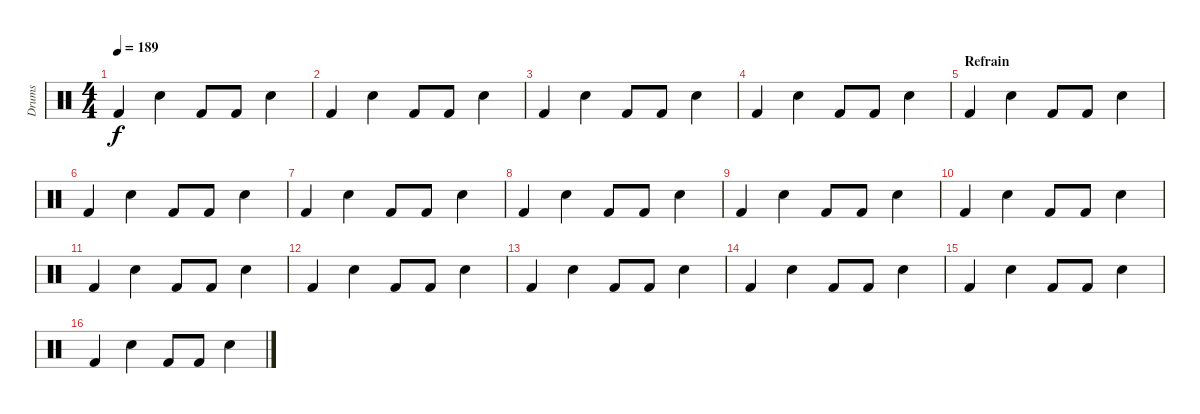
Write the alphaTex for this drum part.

\track ("Drums" "Drums") {instrument percussion}
\staff {score}
\articulation defaults
\ts (4 4)
\tempo 189
\clef neutral
\ks c "Kick (hit) 2".4{dy f} "Electric Snare (hit)".4 "Kick (hit) 2".8 "Kick (hit) 2".8 "Electric Snare (hit)".4
|
"Kick (hit) 2".4 "Electric Snare (hit)".4 "Kick (hit) 2".8 "Kick (hit) 2".8 "Electric Snare (hit)".4 |
"Kick (hit) 2".4 "Electric Snare (hit)".4 "Kick (hit) 2".8 "Kick (hit) 2".8 "Electric Snare (hit)".4 |
"Kick (hit) 2".4 "Electric Snare (hit)".4 "Kick (hit) 2".8 "Kick (hit) 2".8 "Electric Snare (hit)".4 |
\section ("" "Refrain")
"Kick (hit) 2".4 "Electric Snare (hit)".4 "Kick (hit) 2".8 "Kick (hit) 2".8 "Electric Snare (hit)".4 |
"Kick (hit) 2".4 "Electric Snare (hit)".4 "Kick (hit) 2".8 "Kick (hit) 2".8 "Electric Snare (hit)".4 |
"Kick (hit) 2".4 "Electric Snare (hit)".4 "Kick (hit) 2".8 "Kick (hit) 2".8 "Electric Snare (hit)".4 |
"Kick (hit) 2".4 "Electric Snare (hit)".4 "Kick (hit) 2".8 "Kick (hit) 2".8 "Electric Snare (hit)".4 |
"Kick (hit) 2".4 "Electric Snare (hit)".4 "Kick (hit) 2".8 "Kick (hit) 2".8 "Electric Snare (hit)".4 |
"Kick (hit) 2".4 "Electric Snare (hit)".4 "Kick (hit) 2".8 "Kick (hit) 2".8 "Electric Snare (hit)".4 |
"Kick (hit) 2".4 "Electric Snare (hit)".4 "Kick (hit) 2".8 "Kick (hit) 2".8 "Electric Snare (hit)".4 |
"Kick (hit) 2".4 "Electric Snare (hit)".4 "Kick (hit) 2".8 "Kick (hit) 2".8 "Electric Snare (hit)".4 |
"Kick (hit) 2".4 "Electric Snare (hit)".4 "Kick (hit) 2".8 "Kick (hit) 2".8 "Electric Snare (hit)".4 |
"Kick (hit) 2".4 "Electric Snare (hit)".4 "Kick (hit) 2".8 "Kick (hit) 2".8 "Electric Snare (hit)".4 |
"Kick (hit) 2".4 "Electric Snare (hit)".4 "Kick (hit) 2".8 "Kick (hit) 2".8 "Electric Snare (hit)".4 |
"Kick (hit) 2".4 "Electric Snare (hit)".4 "Kick (hit) 2".8 "Kick (hit) 2".8 "Electric Snare (hit)".4
